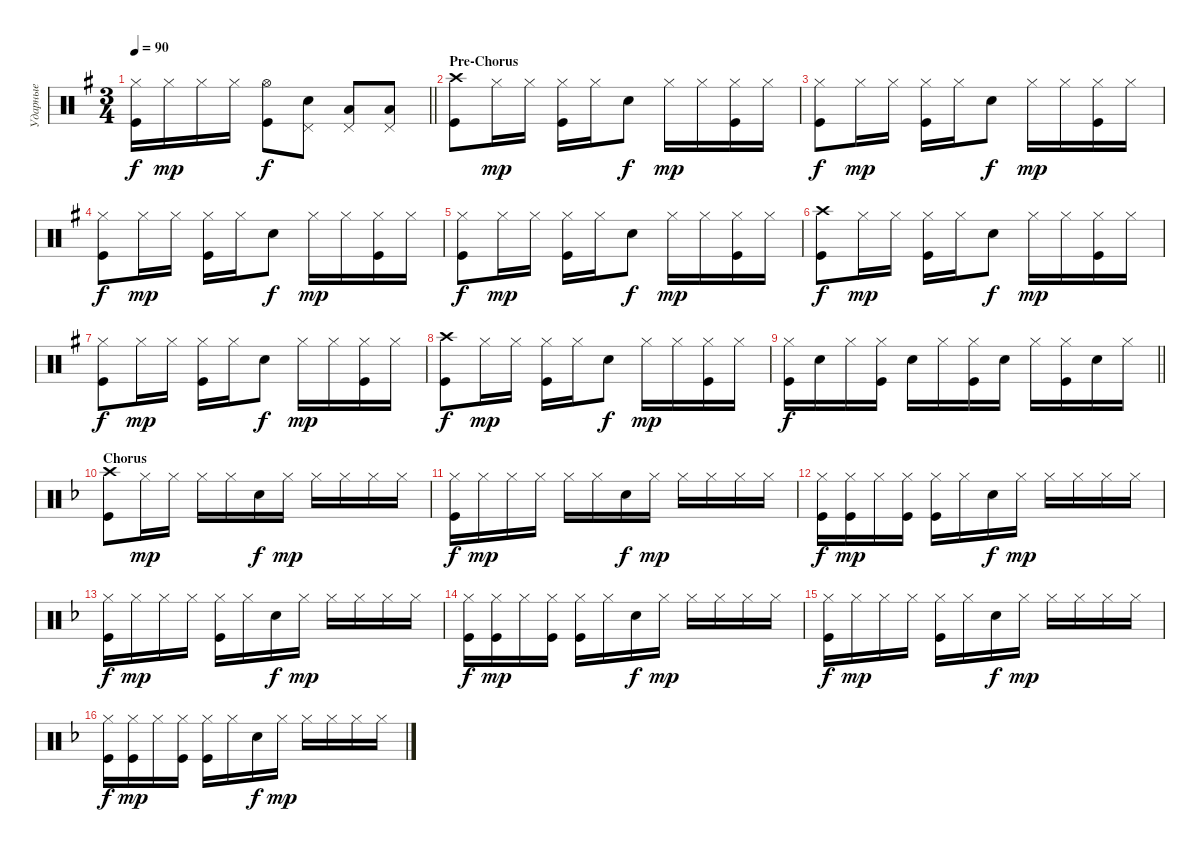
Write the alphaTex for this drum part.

\track ("Ударные" "Ударные") {instrument percussion}
\staff {score}
\articulation defaults
\ts (3 4)
\tempo 90
\clef neutral
\barLineRight lightlight
\ks eminor
("Hi-Hat (closed)" "Kick (hit)").16{dy f} "Hi-Hat (closed)".16{dy mp} "Hi-Hat (closed)".16 "Hi-Hat (closed)".16 ("Hi-Hat (open)" "Kick (hit)").8{dy f} ("Snare (hit) 2" "Pedal Hi-Hat (hit)").8 ("Pedal Hi-Hat (hit)" "Low Tom (hit)").8{bd 60} ("Pedal Hi-Hat (hit)" "Low Tom (hit)").8{bd 60} |
\section ("" "Pre-Chorus")
("Crash high (hit)" "Kick (hit)").8 "Hi-Hat (closed)".16{dy mp} "Hi-Hat (closed)".16 ("Hi-Hat (closed)" "Kick (hit)").16 "Hi-Hat (closed)".16 "Snare (hit) 2".8{dy f} "Hi-Hat (closed)".16{dy mp} "Hi-Hat (closed)".16 ("Hi-Hat (closed)" "Kick (hit)").16 "Hi-Hat (closed)".16 |
("Hi-Hat (closed)" "Kick (hit)").8{dy f} "Hi-Hat (closed)".16{dy mp} "Hi-Hat (closed)".16 ("Hi-Hat (closed)" "Kick (hit)").16 "Hi-Hat (closed)".16 "Snare (hit) 2".8{dy f} "Hi-Hat (closed)".16{dy mp} "Hi-Hat (closed)".16 ("Hi-Hat (closed)" "Kick (hit)").16 "Hi-Hat (closed)".16 |
("Hi-Hat (closed)" "Kick (hit)").8{dy f} "Hi-Hat (closed)".16{dy mp} "Hi-Hat (closed)".16 ("Hi-Hat (closed)" "Kick (hit)").16 "Hi-Hat (closed)".16 "Snare (hit) 2".8{dy f} "Hi-Hat (closed)".16{dy mp} "Hi-Hat (closed)".16 ("Hi-Hat (closed)" "Kick (hit)").16 "Hi-Hat (closed)".16 |
("Hi-Hat (closed)" "Kick (hit)").8{dy f} "Hi-Hat (closed)".16{dy mp} "Hi-Hat (closed)".16 ("Hi-Hat (closed)" "Kick (hit)").16 "Hi-Hat (closed)".16 "Snare (hit) 2".8{dy f} "Hi-Hat (closed)".16{dy mp} "Hi-Hat (closed)".16 ("Hi-Hat (closed)" "Kick (hit)").16 "Hi-Hat (closed)".16 |
("Crash high (hit)" "Kick (hit)").8{dy f} "Hi-Hat (closed)".16{dy mp} "Hi-Hat (closed)".16 ("Hi-Hat (closed)" "Kick (hit)").16 "Hi-Hat (closed)".16 "Snare (hit) 2".8{dy f} "Hi-Hat (closed)".16{dy mp} "Hi-Hat (closed)".16 ("Hi-Hat (closed)" "Kick (hit)").16 "Hi-Hat (closed)".16 |
("Hi-Hat (closed)" "Kick (hit)").8{dy f} "Hi-Hat (closed)".16{dy mp} "Hi-Hat (closed)".16 ("Hi-Hat (closed)" "Kick (hit)").16 "Hi-Hat (closed)".16 "Snare (hit) 2".8{dy f} "Hi-Hat (closed)".16{dy mp} "Hi-Hat (closed)".16 ("Hi-Hat (closed)" "Kick (hit)").16 "Hi-Hat (closed)".16 |
("Crash high (hit)" "Kick (hit)").8{dy f} "Hi-Hat (closed)".16{dy mp} "Hi-Hat (closed)".16 ("Hi-Hat (closed)" "Kick (hit)").16 "Hi-Hat (closed)".16 "Snare (hit) 2".8{dy f} "Hi-Hat (closed)".16{dy mp} "Hi-Hat (closed)".16 ("Hi-Hat (closed)" "Kick (hit)").16 "Hi-Hat (closed)".16 |
\barLineRight lightlight
("Kick (hit)" "Hi-Hat (closed)").16{dy f} "Snare (hit) 2".16 "Hi-Hat (closed)".16 ("Kick (hit)" "Hi-Hat (closed)").16 "Snare (hit) 2".16 "Hi-Hat (closed)".16 ("Kick (hit)" "Hi-Hat (closed)").16 "Snare (hit) 2".16 "Hi-Hat (closed)".16 ("Kick (hit)" "Hi-Hat (closed)").16 "Snare (hit) 2".16 "Hi-Hat (closed)".16 |
\section ("" "Chorus")
\ks dminor
("Crash high (hit)" "Kick (hit)").8 "Hi-Hat (closed)".16{dy mp} "Hi-Hat (closed)".16 "Hi-Hat (closed)".16 "Hi-Hat (closed)".16 "Snare (hit) 2".16{dy f} "Hi-Hat (closed)".16{dy mp} "Hi-Hat (closed)".16 "Hi-Hat (closed)".16 "Hi-Hat (closed)".16 "Hi-Hat (closed)".16 |
("Hi-Hat (closed)" "Kick (hit)").16{dy f} "Hi-Hat (closed)".16{dy mp} "Hi-Hat (closed)".16 "Hi-Hat (closed)".16 "Hi-Hat (closed)".16 "Hi-Hat (closed)".16 "Snare (hit) 2".16{dy f} "Hi-Hat (closed)".16{dy mp} "Hi-Hat (closed)".16 "Hi-Hat (closed)".16 "Hi-Hat (closed)".16 "Hi-Hat (closed)".16 |
("Hi-Hat (closed)" "Kick (hit)").16{dy f} ("Hi-Hat (closed)" "Kick (hit)").16{dy mp} "Hi-Hat (closed)".16 ("Hi-Hat (closed)" "Kick (hit)").16 ("Hi-Hat (closed)" "Kick (hit)").16 "Hi-Hat (closed)".16 "Snare (hit) 2".16{dy f} "Hi-Hat (closed)".16{dy mp} "Hi-Hat (closed)".16 "Hi-Hat (closed)".16 "Hi-Hat (closed)".16 "Hi-Hat (closed)".16 |
("Hi-Hat (closed)" "Kick (hit)").16{dy f} "Hi-Hat (closed)".16{dy mp} "Hi-Hat (closed)".16 "Hi-Hat (closed)".16 ("Hi-Hat (closed)" "Kick (hit)").16 "Hi-Hat (closed)".16 "Snare (hit) 2".16{dy f} "Hi-Hat (closed)".16{dy mp} "Hi-Hat (closed)".16 "Hi-Hat (closed)".16 "Hi-Hat (closed)".16 "Hi-Hat (closed)".16 |
("Hi-Hat (closed)" "Kick (hit)").16{dy f} ("Hi-Hat (closed)" "Kick (hit)").16{dy mp} "Hi-Hat (closed)".16 ("Hi-Hat (closed)" "Kick (hit)").16 ("Hi-Hat (closed)" "Kick (hit)").16 "Hi-Hat (closed)".16 "Snare (hit) 2".16{dy f} "Hi-Hat (closed)".16{dy mp} "Hi-Hat (closed)".16 "Hi-Hat (closed)".16 "Hi-Hat (closed)".16 "Hi-Hat (closed)".16 |
("Hi-Hat (closed)" "Kick (hit)").16{dy f} "Hi-Hat (closed)".16{dy mp} "Hi-Hat (closed)".16 "Hi-Hat (closed)".16 ("Hi-Hat (closed)" "Kick (hit)").16 "Hi-Hat (closed)".16 "Snare (hit) 2".16{dy f} "Hi-Hat (closed)".16{dy mp} "Hi-Hat (closed)".16 "Hi-Hat (closed)".16 "Hi-Hat (closed)".16 "Hi-Hat (closed)".16 |
("Hi-Hat (closed)" "Kick (hit)").16{dy f} ("Hi-Hat (closed)" "Kick (hit)").16{dy mp} "Hi-Hat (closed)".16 ("Hi-Hat (closed)" "Kick (hit)").16 ("Hi-Hat (closed)" "Kick (hit)").16 "Hi-Hat (closed)".16 "Snare (hit) 2".16{dy f} "Hi-Hat (closed)".16{dy mp} "Hi-Hat (closed)".16 "Hi-Hat (closed)".16 "Hi-Hat (closed)".16 "Hi-Hat (closed)".16
